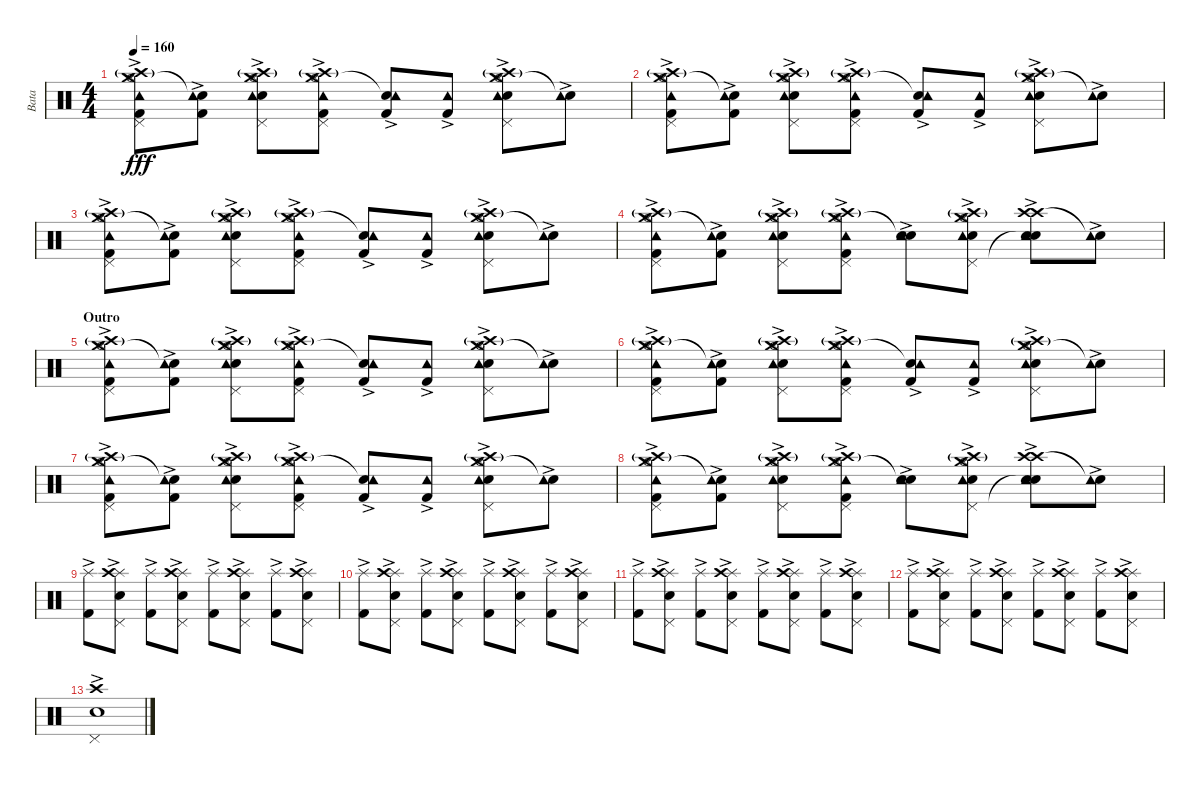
\track ("Bata" "Bata") {instrument percussion}
\staff {score}
\articulation defaults
\ts (4 4)
\tempo 160
\clef neutral
\ks c
("Crash medium (hit)" "Crash high (hit)"{g} "Pedal Hi-Hat (hit)" "Hi-Hat (open)" "Tambourine (hit)"{ac} "Kick (hit) 2").8{dy fff} ("Snare (hit)"{t} "Tambourine (hit)"{ac} "Kick (hit) 2").8 ("Crash medium (hit)"{ac} "Crash high (hit)"{g} "Pedal Hi-Hat (hit)"{ac} "Hi-Hat (open)" "Snare (hit) 2" "Tambourine (hit)"{ac}).8 ("Crash medium (hit)" "Crash high (hit)"{g} "Pedal Hi-Hat (hit)" "Hi-Hat (open)" "Tambourine (hit)"{ac} "Kick (hit) 2").8 ("Snare (hit)"{t} "Tambourine (hit)"{ac} "Kick (hit) 2").8 ("Tambourine (hit)"{ac} "Kick (hit) 2").8 ("Crash medium (hit)" "Crash high (hit)"{g} "Pedal Hi-Hat (hit)" "Hi-Hat (open)" "Snare (hit) 2" "Tambourine (hit)"{ac}).8 ("Snare (hit)"{t} "Tambourine (hit)"{ac}).8 |
("Crash medium (hit)" "Crash high (hit)"{g} "Pedal Hi-Hat (hit)" "Hi-Hat (open)" "Tambourine (hit)"{ac} "Kick (hit) 2").8 ("Snare (hit)"{t} "Tambourine (hit)"{ac} "Kick (hit) 2").8 ("Crash medium (hit)"{ac} "Crash high (hit)"{g} "Pedal Hi-Hat (hit)"{ac} "Hi-Hat (open)" "Snare (hit) 2" "Tambourine (hit)"{ac}).8 ("Crash medium (hit)" "Crash high (hit)"{g} "Pedal Hi-Hat (hit)" "Hi-Hat (open)" "Tambourine (hit)"{ac} "Kick (hit) 2").8 ("Snare (hit)"{t} "Tambourine (hit)"{ac} "Kick (hit) 2").8 ("Tambourine (hit)"{ac} "Kick (hit) 2").8 ("Crash medium (hit)" "Crash high (hit)"{g} "Pedal Hi-Hat (hit)" "Hi-Hat (open)" "Snare (hit) 2" "Tambourine (hit)"{ac}).8 ("Snare (hit)"{t} "Tambourine (hit)"{ac}).8 |
("Crash medium (hit)" "Crash high (hit)"{g} "Pedal Hi-Hat (hit)" "Hi-Hat (open)" "Tambourine (hit)"{ac} "Kick (hit) 2").8 ("Snare (hit)"{t} "Tambourine (hit)"{ac} "Kick (hit) 2").8 ("Crash medium (hit)"{ac} "Crash high (hit)"{g} "Pedal Hi-Hat (hit)"{ac} "Hi-Hat (open)" "Snare (hit) 2" "Tambourine (hit)"{ac}).8 ("Crash medium (hit)" "Crash high (hit)"{g} "Pedal Hi-Hat (hit)" "Hi-Hat (open)" "Tambourine (hit)"{ac} "Kick (hit) 2").8 ("Snare (hit)"{t} "Tambourine (hit)"{ac} "Kick (hit) 2").8 ("Tambourine (hit)"{ac} "Kick (hit) 2").8 ("Crash medium (hit)" "Crash high (hit)"{g} "Pedal Hi-Hat (hit)" "Hi-Hat (open)" "Snare (hit) 2" "Tambourine (hit)"{ac}).8 ("Snare (hit)"{t} "Tambourine (hit)"{ac}).8 |
("Crash medium (hit)" "Crash high (hit)"{g} "Pedal Hi-Hat (hit)" "Hi-Hat (open)" "Tambourine (hit)"{ac} "Kick (hit) 2").8 ("Snare (hit)"{t} "Tambourine (hit)"{ac} "Kick (hit) 2").8 ("Crash medium (hit)"{ac} "Crash high (hit)"{g} "Pedal Hi-Hat (hit)"{ac} "Hi-Hat (open)" "Snare (hit) 2" "Tambourine (hit)"{ac}).8 ("Crash medium (hit)" "Crash high (hit)"{g} "Pedal Hi-Hat (hit)" "Hi-Hat (open)" "Tambourine (hit)"{ac} "Kick (hit) 2").8 ("Snare (hit)"{t} "Snare (hit) 2" "Tambourine (hit)"{ac}).8 ("Crash medium (hit)" "Crash high (hit)"{g} "Pedal Hi-Hat (hit)" "Hi-Hat (open)" "Snare (hit) 2" "Tambourine (hit)"{ac}).8 ("Crash high (hit)" "Crash high (hit)" "Snare (hit)"{t} "Snare (hit) 2" "Tambourine (hit)"{ac}).8 ("Snare (hit)"{t} "Tambourine (hit)"{ac}).8 |
\section ("" "Outro")
("Crash medium (hit)" "Crash high (hit)"{g} "Pedal Hi-Hat (hit)" "Hi-Hat (open)" "Tambourine (hit)"{ac} "Kick (hit) 2").8 ("Snare (hit)"{t} "Tambourine (hit)"{ac} "Kick (hit) 2").8 ("Crash medium (hit)"{ac} "Crash high (hit)"{g} "Pedal Hi-Hat (hit)"{ac} "Hi-Hat (open)" "Snare (hit) 2" "Tambourine (hit)"{ac}).8 ("Crash medium (hit)" "Crash high (hit)"{g} "Pedal Hi-Hat (hit)" "Hi-Hat (open)" "Tambourine (hit)"{ac} "Kick (hit) 2").8 ("Snare (hit)"{t} "Tambourine (hit)"{ac} "Kick (hit) 2").8 ("Tambourine (hit)"{ac} "Kick (hit) 2").8 ("Crash medium (hit)" "Crash high (hit)"{g} "Pedal Hi-Hat (hit)" "Hi-Hat (open)" "Snare (hit) 2" "Tambourine (hit)"{ac}).8 ("Snare (hit)"{t} "Tambourine (hit)"{ac}).8 |
("Crash medium (hit)" "Crash high (hit)"{g} "Pedal Hi-Hat (hit)" "Hi-Hat (open)" "Tambourine (hit)"{ac} "Kick (hit) 2").8 ("Snare (hit)"{t} "Tambourine (hit)"{ac} "Kick (hit) 2").8 ("Crash medium (hit)"{ac} "Crash high (hit)"{g} "Pedal Hi-Hat (hit)"{ac} "Hi-Hat (open)" "Snare (hit) 2" "Tambourine (hit)"{ac}).8 ("Crash medium (hit)" "Crash high (hit)"{g} "Pedal Hi-Hat (hit)" "Hi-Hat (open)" "Tambourine (hit)"{ac} "Kick (hit) 2").8 ("Snare (hit)"{t} "Tambourine (hit)"{ac} "Kick (hit) 2").8 ("Tambourine (hit)"{ac} "Kick (hit) 2").8 ("Crash medium (hit)" "Crash high (hit)"{g} "Pedal Hi-Hat (hit)" "Hi-Hat (open)" "Snare (hit) 2" "Tambourine (hit)"{ac}).8 ("Snare (hit)"{t} "Tambourine (hit)"{ac}).8 |
("Crash medium (hit)" "Crash high (hit)"{g} "Pedal Hi-Hat (hit)" "Hi-Hat (open)" "Tambourine (hit)"{ac} "Kick (hit) 2").8 ("Snare (hit)"{t} "Tambourine (hit)"{ac} "Kick (hit) 2").8 ("Crash medium (hit)"{ac} "Crash high (hit)"{g} "Pedal Hi-Hat (hit)"{ac} "Hi-Hat (open)" "Snare (hit) 2" "Tambourine (hit)"{ac}).8 ("Crash medium (hit)" "Crash high (hit)"{g} "Pedal Hi-Hat (hit)" "Hi-Hat (open)" "Tambourine (hit)"{ac} "Kick (hit) 2").8 ("Snare (hit)"{t} "Tambourine (hit)"{ac} "Kick (hit) 2").8 ("Tambourine (hit)"{ac} "Kick (hit) 2").8 ("Crash medium (hit)" "Crash high (hit)"{g} "Pedal Hi-Hat (hit)" "Hi-Hat (open)" "Snare (hit) 2" "Tambourine (hit)"{ac}).8 ("Snare (hit)"{t} "Tambourine (hit)"{ac}).8 |
("Crash medium (hit)" "Crash high (hit)"{g} "Pedal Hi-Hat (hit)" "Hi-Hat (open)" "Tambourine (hit)"{ac} "Kick (hit) 2").8 ("Snare (hit)"{t} "Tambourine (hit)"{ac} "Kick (hit) 2").8 ("Crash medium (hit)"{ac} "Crash high (hit)"{g} "Pedal Hi-Hat (hit)"{ac} "Hi-Hat (open)" "Snare (hit) 2" "Tambourine (hit)"{ac}).8 ("Crash medium (hit)" "Crash high (hit)"{g} "Pedal Hi-Hat (hit)" "Hi-Hat (open)" "Tambourine (hit)"{ac} "Kick (hit) 2").8 ("Snare (hit)"{t} "Snare (hit) 2" "Tambourine (hit)"{ac}).8 ("Crash medium (hit)" "Crash high (hit)"{g} "Pedal Hi-Hat (hit)" "Hi-Hat (open)" "Snare (hit) 2" "Tambourine (hit)"{ac}).8 ("Crash high (hit)" "Crash high (hit)" "Snare (hit)"{t} "Snare (hit) 2" "Tambourine (hit)"{ac}).8 ("Snare (hit)"{t} "Tambourine (hit)"{ac}).8 |
("Splash (hit)"{ac} "Kick (hit) 2").8 ("Splash (hit)"{ac} "Pedal Hi-Hat (hit)" "Crash high (hit)" "Snare (hit) 2").8 ("Splash (hit)"{ac} "Kick (hit) 2").8 ("Splash (hit)"{ac} "Pedal Hi-Hat (hit)" "Crash high (hit)" "Snare (hit) 2").8 ("Splash (hit)"{ac} "Kick (hit) 2").8 ("Splash (hit)"{ac} "Pedal Hi-Hat (hit)" "Crash high (hit)" "Snare (hit) 2").8 ("Splash (hit)"{ac} "Kick (hit) 2").8 ("Splash (hit)"{ac} "Pedal Hi-Hat (hit)" "Crash high (hit)" "Snare (hit) 2").8 |
("Splash (hit)"{ac} "Kick (hit) 2").8 ("Splash (hit)"{ac} "Pedal Hi-Hat (hit)" "Crash high (hit)" "Snare (hit) 2").8 ("Splash (hit)"{ac} "Kick (hit) 2").8 ("Splash (hit)"{ac} "Pedal Hi-Hat (hit)" "Crash high (hit)" "Snare (hit) 2").8 ("Splash (hit)"{ac} "Kick (hit) 2").8 ("Splash (hit)"{ac} "Pedal Hi-Hat (hit)" "Crash high (hit)" "Snare (hit) 2").8 ("Splash (hit)"{ac} "Kick (hit) 2").8 ("Splash (hit)"{ac} "Pedal Hi-Hat (hit)" "Crash high (hit)" "Snare (hit) 2").8 |
("Splash (hit)"{ac} "Kick (hit) 2").8 ("Splash (hit)"{ac} "Pedal Hi-Hat (hit)" "Crash high (hit)" "Snare (hit) 2").8 ("Splash (hit)"{ac} "Kick (hit) 2").8 ("Splash (hit)"{ac} "Pedal Hi-Hat (hit)" "Crash high (hit)" "Snare (hit) 2").8 ("Splash (hit)"{ac} "Kick (hit) 2").8 ("Splash (hit)"{ac} "Pedal Hi-Hat (hit)" "Crash high (hit)" "Snare (hit) 2").8 ("Splash (hit)"{ac} "Kick (hit) 2").8 ("Splash (hit)"{ac} "Pedal Hi-Hat (hit)" "Crash high (hit)" "Snare (hit) 2").8 |
("Splash (hit)"{ac} "Kick (hit) 2").8 ("Splash (hit)"{ac} "Pedal Hi-Hat (hit)" "Crash high (hit)" "Snare (hit) 2").8 ("Splash (hit)"{ac} "Kick (hit) 2").8 ("Splash (hit)"{ac} "Pedal Hi-Hat (hit)" "Crash high (hit)" "Snare (hit) 2").8 ("Splash (hit)"{ac} "Kick (hit) 2").8 ("Splash (hit)"{ac} "Pedal Hi-Hat (hit)" "Crash high (hit)" "Snare (hit) 2").8 ("Splash (hit)"{ac} "Kick (hit) 2").8 ("Splash (hit)"{ac} "Pedal Hi-Hat (hit)" "Crash high (hit)" "Snare (hit) 2").8 |
("Pedal Hi-Hat (hit)" "Crash high (hit)"{ac} "Snare (hit) 2").1
